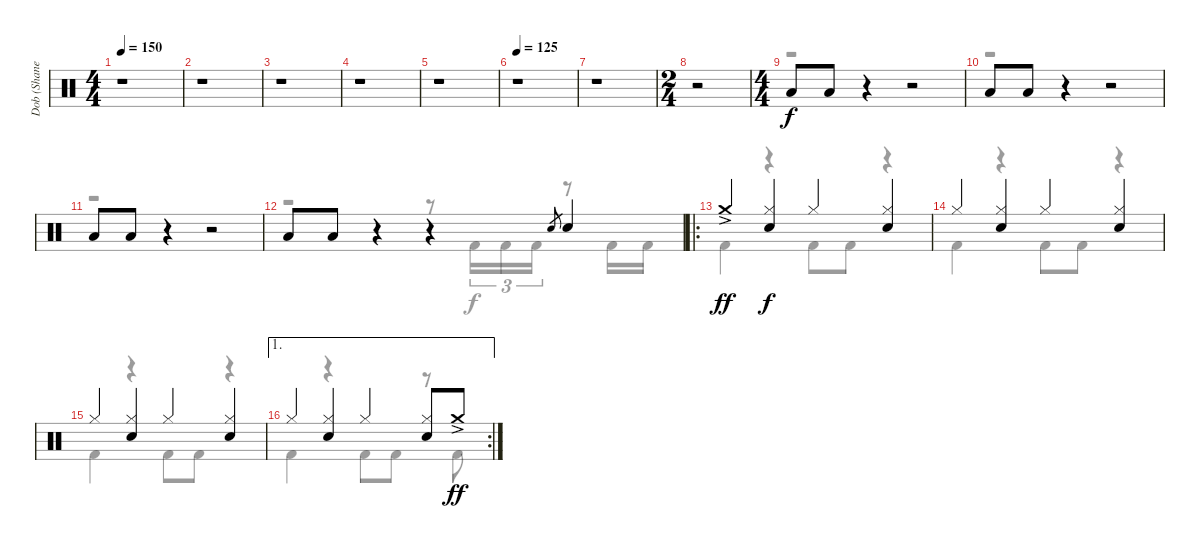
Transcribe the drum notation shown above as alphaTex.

\track ("Dob (Shane Gaalaas)" "Dob (Shane") {instrument percussion}
\staff {score}
\articulation defaults
\voice
\ts (4 4)
\tempo 150
\clef neutral
\ks c
r.1{dy f} |
r.1 |
r.1 |
r.1 |
r.1 |
\tempo 125
r.1 |
r.1 |
\ts (2 4)
r.2 |
\ts (4 4)
"Low Tom (hit)".8{volume 16} "Low Tom (hit)".8 r.4 r.2 |
"Low Tom (hit)".8 "Low Tom (hit)".8 r.4 r.2 |
"Low Tom (hit)".8 "Low Tom (hit)".8 r.4 r.2 |
"Low Tom (hit)".8 "Low Tom (hit)".8 r.4 r.4 "Electric Snare (hit)".8{gr} "Electric Snare (hit)".4 |
\ro "Crash medium (hit)"{ac}.4{dy ff volume 12}
("Hi-Hat (closed)" "Electric Snare (hit)").4{dy f} "Hi-Hat (closed)".4 ("Hi-Hat (closed)" "Electric Snare (hit)").4 |
"Hi-Hat (closed)".4 ("Hi-Hat (closed)" "Electric Snare (hit)").4 "Hi-Hat (closed)".4 ("Hi-Hat (closed)" "Electric Snare (hit)").4 |
"Hi-Hat (closed)".4 ("Hi-Hat (closed)" "Electric Snare (hit)").4 "Hi-Hat (closed)".4 ("Hi-Hat (closed)" "Electric Snare (hit)").4 |
\ae 1
\rc 2 "Hi-Hat (closed)".4
("Hi-Hat (closed)" "Electric Snare (hit)").4 "Hi-Hat (closed)".4 ("Hi-Hat (closed)" "Electric Snare (hit)").8 "Crash medium (hit)"{ac}.8{dy ff}
\voice
\clef neutral
\ottava regular
\simile none
\ks c
r.1{dy f} |
r.1 |
r.1 |
r.1 |
r.1 |
r.1 |
r.1 |
r.2 |
r.1 |
r.1 |
r.1 |
r.2 r.8 "Kick (hit) 2".16{tu (3 2)} "Kick (hit) 2".16{tu (3 2)} "Kick (hit) 2".16{tu (3 2)} r.8 "Kick (hit) 2".16 "Kick (hit) 2".16 |
"Kick (hit) 2".4 r.4 "Kick (hit) 2".8 "Kick (hit) 2".8 r.4 |
"Kick (hit) 2".4 r.4 "Kick (hit) 2".8 "Kick (hit) 2".8 r.4 |
"Kick (hit) 2".4 r.4 "Kick (hit) 2".8 "Kick (hit) 2".8 r.4 |
"Kick (hit) 2".4 r.4 "Kick (hit) 2".8 "Kick (hit) 2".8 r.8 "Kick (hit) 2".8
